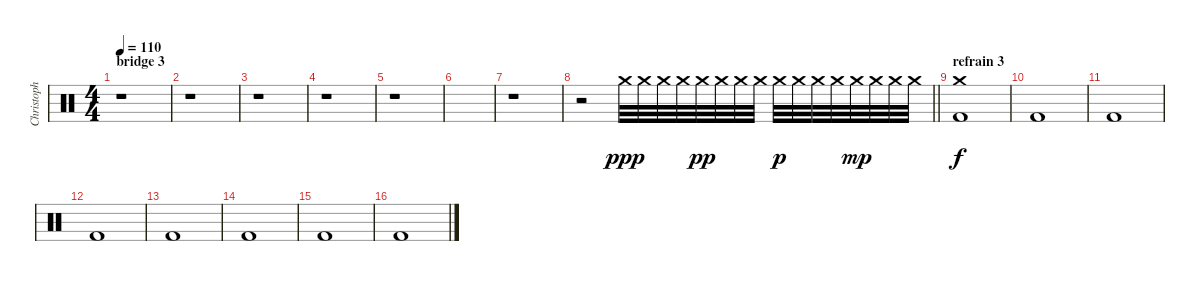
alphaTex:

\track ("Christoph" "Christoph") {instrument percussion}
\staff {score}
\articulation defaults
\ts (4 4)
\section ("" "bridge 3")
\tempo 110
\clef neutral
\ks c
r.1{dy f} |
r.1 |
r.1 |
r.1 |
r.1 |
|
r.1 |
\barLineRight lightlight
r.2 "Crash medium (hit)".32{dy ppp} "Crash medium (hit)".32 "Crash medium (hit)".32 "Crash medium (hit)".32 "Crash medium (hit)".32{dy pp} "Crash medium (hit)".32 "Crash medium (hit)".32 "Crash medium (hit)".32 "Crash medium (hit)".32{dy p} "Crash medium (hit)".32 "Crash medium (hit)".32 "Crash medium (hit)".32 "Crash medium (hit)".32{dy mp} "Crash medium (hit)".32 "Crash medium (hit)".32 "Crash medium (hit)".32 |
\section ("" "refrain 3")
("Crash medium (hit)" "Kick (hit) 2").1{dy f} |
"Kick (hit) 2".1 |
"Kick (hit) 2".1 |
"Kick (hit) 2".1 |
"Kick (hit) 2".1 |
"Kick (hit) 2".1 |
"Kick (hit) 2".1 |
"Kick (hit) 2".1
